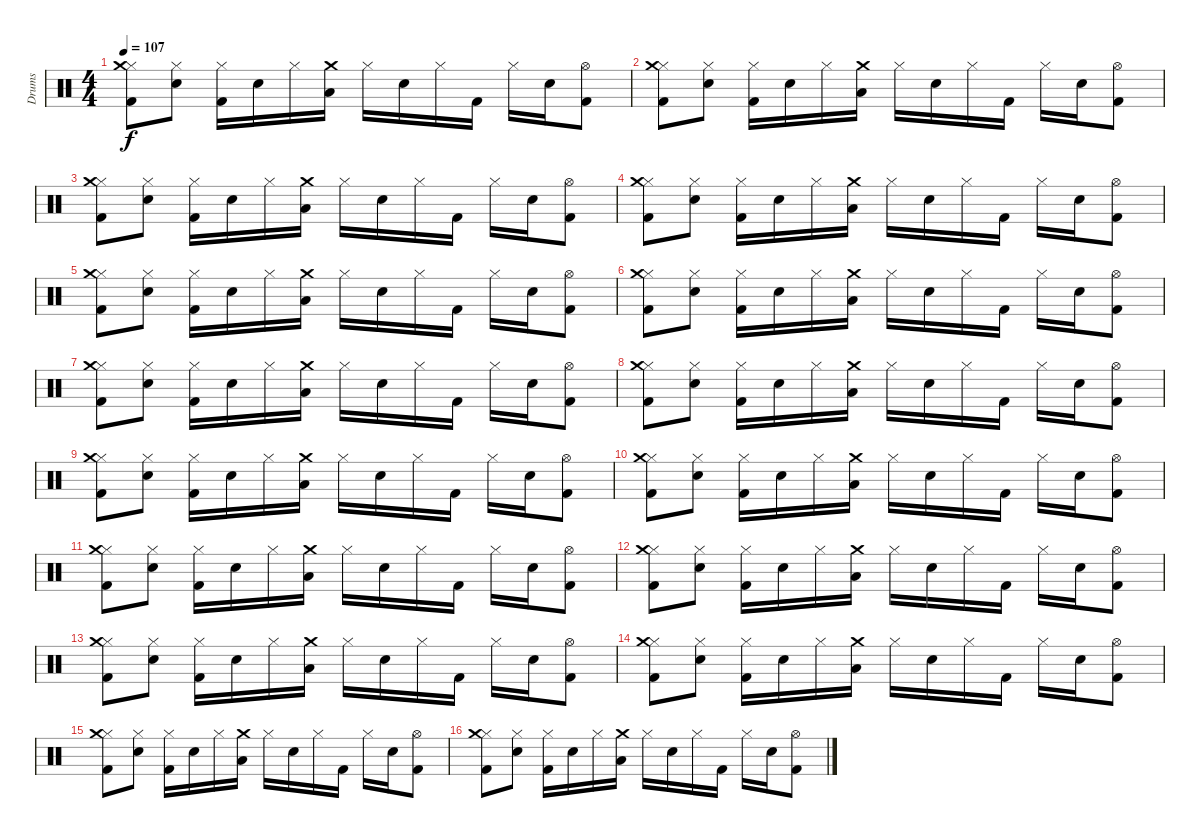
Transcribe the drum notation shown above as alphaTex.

\track ("Drums" "Drums") {instrument percussion}
\staff {score}
\articulation defaults
\ts (4 4)
\tempo 107
\clef neutral
\ks c
("Hi-Hat (closed)" "Crash medium (hit)" "Kick (hit) 2").8{dy f} ("Hi-Hat (closed)" "Snare (hit) 2").8 ("Hi-Hat (closed)" "Kick (hit) 2").16 "Snare (hit) 2".16 "Hi-Hat (closed)".16 ("Crash medium (hit)" "Low Tom (hit)").16 "Hi-Hat (closed)".16 "Snare (hit) 2".16 "Hi-Hat (closed)".16 "Kick (hit) 2".16 "Hi-Hat (closed)".16 "Snare (hit) 2".16 ("Hi-Hat (open)" "Kick (hit) 2").8 |
("Hi-Hat (closed)" "Crash medium (hit)" "Kick (hit) 2").8 ("Hi-Hat (closed)" "Snare (hit) 2").8 ("Hi-Hat (closed)" "Kick (hit) 2").16 "Snare (hit) 2".16 "Hi-Hat (closed)".16 ("Crash medium (hit)" "Low Tom (hit)").16 "Hi-Hat (closed)".16 "Snare (hit) 2".16 "Hi-Hat (closed)".16 "Kick (hit) 2".16 "Hi-Hat (closed)".16 "Snare (hit) 2".16 ("Hi-Hat (open)" "Kick (hit) 2").8 |
("Hi-Hat (closed)" "Crash medium (hit)" "Kick (hit) 2").8 ("Hi-Hat (closed)" "Snare (hit) 2").8 ("Hi-Hat (closed)" "Kick (hit) 2").16 "Snare (hit) 2".16 "Hi-Hat (closed)".16 ("Crash medium (hit)" "Low Tom (hit)").16 "Hi-Hat (closed)".16 "Snare (hit) 2".16 "Hi-Hat (closed)".16 "Kick (hit) 2".16 "Hi-Hat (closed)".16 "Snare (hit) 2".16 ("Hi-Hat (open)" "Kick (hit) 2").8 |
("Hi-Hat (closed)" "Crash medium (hit)" "Kick (hit) 2").8 ("Hi-Hat (closed)" "Snare (hit) 2").8 ("Hi-Hat (closed)" "Kick (hit) 2").16 "Snare (hit) 2".16 "Hi-Hat (closed)".16 ("Crash medium (hit)" "Low Tom (hit)").16 "Hi-Hat (closed)".16 "Snare (hit) 2".16 "Hi-Hat (closed)".16 "Kick (hit) 2".16 "Hi-Hat (closed)".16 "Snare (hit) 2".16 ("Hi-Hat (open)" "Kick (hit) 2").8 |
("Hi-Hat (closed)" "Crash medium (hit)" "Kick (hit) 2").8 ("Hi-Hat (closed)" "Snare (hit) 2").8 ("Hi-Hat (closed)" "Kick (hit) 2").16 "Snare (hit) 2".16 "Hi-Hat (closed)".16 ("Crash medium (hit)" "Low Tom (hit)").16 "Hi-Hat (closed)".16 "Snare (hit) 2".16 "Hi-Hat (closed)".16 "Kick (hit) 2".16 "Hi-Hat (closed)".16 "Snare (hit) 2".16 ("Hi-Hat (open)" "Kick (hit) 2").8 |
("Hi-Hat (closed)" "Crash medium (hit)" "Kick (hit) 2").8 ("Hi-Hat (closed)" "Snare (hit) 2").8 ("Hi-Hat (closed)" "Kick (hit) 2").16 "Snare (hit) 2".16 "Hi-Hat (closed)".16 ("Crash medium (hit)" "Low Tom (hit)").16 "Hi-Hat (closed)".16 "Snare (hit) 2".16 "Hi-Hat (closed)".16 "Kick (hit) 2".16 "Hi-Hat (closed)".16 "Snare (hit) 2".16 ("Hi-Hat (open)" "Kick (hit) 2").8 |
("Hi-Hat (closed)" "Crash medium (hit)" "Kick (hit) 2").8 ("Hi-Hat (closed)" "Snare (hit) 2").8 ("Hi-Hat (closed)" "Kick (hit) 2").16 "Snare (hit) 2".16 "Hi-Hat (closed)".16 ("Crash medium (hit)" "Low Tom (hit)").16 "Hi-Hat (closed)".16 "Snare (hit) 2".16 "Hi-Hat (closed)".16 "Kick (hit) 2".16 "Hi-Hat (closed)".16 "Snare (hit) 2".16 ("Hi-Hat (open)" "Kick (hit) 2").8 |
("Hi-Hat (closed)" "Crash medium (hit)" "Kick (hit) 2").8 ("Hi-Hat (closed)" "Snare (hit) 2").8 ("Hi-Hat (closed)" "Kick (hit) 2").16 "Snare (hit) 2".16 "Hi-Hat (closed)".16 ("Crash medium (hit)" "Low Tom (hit)").16 "Hi-Hat (closed)".16 "Snare (hit) 2".16 "Hi-Hat (closed)".16 "Kick (hit) 2".16 "Hi-Hat (closed)".16 "Snare (hit) 2".16 ("Hi-Hat (open)" "Kick (hit) 2").8 |
("Hi-Hat (closed)" "Crash medium (hit)" "Kick (hit) 2").8 ("Hi-Hat (closed)" "Snare (hit) 2").8 ("Hi-Hat (closed)" "Kick (hit) 2").16 "Snare (hit) 2".16 "Hi-Hat (closed)".16 ("Crash medium (hit)" "Low Tom (hit)").16 "Hi-Hat (closed)".16 "Snare (hit) 2".16 "Hi-Hat (closed)".16 "Kick (hit) 2".16 "Hi-Hat (closed)".16 "Snare (hit) 2".16 ("Hi-Hat (open)" "Kick (hit) 2").8 |
("Hi-Hat (closed)" "Crash medium (hit)" "Kick (hit) 2").8 ("Hi-Hat (closed)" "Snare (hit) 2").8 ("Hi-Hat (closed)" "Kick (hit) 2").16 "Snare (hit) 2".16 "Hi-Hat (closed)".16 ("Crash medium (hit)" "Low Tom (hit)").16 "Hi-Hat (closed)".16 "Snare (hit) 2".16 "Hi-Hat (closed)".16 "Kick (hit) 2".16 "Hi-Hat (closed)".16 "Snare (hit) 2".16 ("Hi-Hat (open)" "Kick (hit) 2").8 |
("Hi-Hat (closed)" "Crash medium (hit)" "Kick (hit) 2").8 ("Hi-Hat (closed)" "Snare (hit) 2").8 ("Hi-Hat (closed)" "Kick (hit) 2").16 "Snare (hit) 2".16 "Hi-Hat (closed)".16 ("Crash medium (hit)" "Low Tom (hit)").16 "Hi-Hat (closed)".16 "Snare (hit) 2".16 "Hi-Hat (closed)".16 "Kick (hit) 2".16 "Hi-Hat (closed)".16 "Snare (hit) 2".16 ("Hi-Hat (open)" "Kick (hit) 2").8 |
("Hi-Hat (closed)" "Crash medium (hit)" "Kick (hit) 2").8 ("Hi-Hat (closed)" "Snare (hit) 2").8 ("Hi-Hat (closed)" "Kick (hit) 2").16 "Snare (hit) 2".16 "Hi-Hat (closed)".16 ("Crash medium (hit)" "Low Tom (hit)").16 "Hi-Hat (closed)".16 "Snare (hit) 2".16 "Hi-Hat (closed)".16 "Kick (hit) 2".16 "Hi-Hat (closed)".16 "Snare (hit) 2".16 ("Hi-Hat (open)" "Kick (hit) 2").8 |
("Hi-Hat (closed)" "Crash medium (hit)" "Kick (hit) 2").8 ("Hi-Hat (closed)" "Snare (hit) 2").8 ("Hi-Hat (closed)" "Kick (hit) 2").16 "Snare (hit) 2".16 "Hi-Hat (closed)".16 ("Crash medium (hit)" "Low Tom (hit)").16 "Hi-Hat (closed)".16 "Snare (hit) 2".16 "Hi-Hat (closed)".16 "Kick (hit) 2".16 "Hi-Hat (closed)".16 "Snare (hit) 2".16 ("Hi-Hat (open)" "Kick (hit) 2").8 |
("Hi-Hat (closed)" "Crash medium (hit)" "Kick (hit) 2").8 ("Hi-Hat (closed)" "Snare (hit) 2").8 ("Hi-Hat (closed)" "Kick (hit) 2").16 "Snare (hit) 2".16 "Hi-Hat (closed)".16 ("Crash medium (hit)" "Low Tom (hit)").16 "Hi-Hat (closed)".16 "Snare (hit) 2".16 "Hi-Hat (closed)".16 "Kick (hit) 2".16 "Hi-Hat (closed)".16 "Snare (hit) 2".16 ("Hi-Hat (open)" "Kick (hit) 2").8 |
("Hi-Hat (closed)" "Crash medium (hit)" "Kick (hit) 2").8 ("Hi-Hat (closed)" "Snare (hit) 2").8 ("Hi-Hat (closed)" "Kick (hit) 2").16 "Snare (hit) 2".16 "Hi-Hat (closed)".16 ("Crash medium (hit)" "Low Tom (hit)").16 "Hi-Hat (closed)".16 "Snare (hit) 2".16 "Hi-Hat (closed)".16 "Kick (hit) 2".16 "Hi-Hat (closed)".16 "Snare (hit) 2".16 ("Hi-Hat (open)" "Kick (hit) 2").8 |
("Hi-Hat (closed)" "Crash medium (hit)" "Kick (hit) 2").8 ("Hi-Hat (closed)" "Snare (hit) 2").8 ("Hi-Hat (closed)" "Kick (hit) 2").16 "Snare (hit) 2".16 "Hi-Hat (closed)".16 ("Crash medium (hit)" "Low Tom (hit)").16 "Hi-Hat (closed)".16 "Snare (hit) 2".16 "Hi-Hat (closed)".16 "Kick (hit) 2".16 "Hi-Hat (closed)".16 "Snare (hit) 2".16 ("Hi-Hat (open)" "Kick (hit) 2").8
